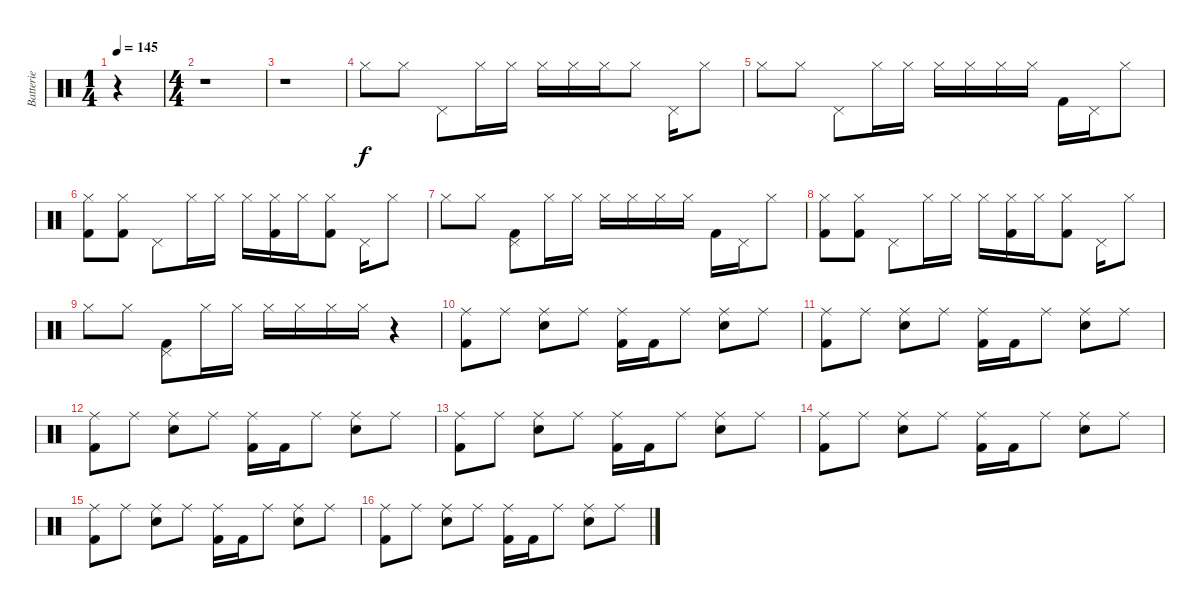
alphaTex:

\track ("Batterie" "Batterie") {instrument percussion}
\staff {score}
\articulation defaults
\ts (1 4)
\tempo 145
\clef neutral
\ks c
r.4{dy f} |
\ts (4 4)
r.1 |
r.1 |
"Hi-Hat (closed)".8 "Hi-Hat (closed)".8 "Pedal Hi-Hat (hit)".8 "Hi-Hat (closed)".16 "Hi-Hat (closed)".16 "Hi-Hat (closed)".16 "Hi-Hat (closed)".16 "Hi-Hat (closed)".16 "Hi-Hat (closed)".8 "Pedal Hi-Hat (hit)".16 "Hi-Hat (closed)".8 |
"Hi-Hat (closed)".8 "Hi-Hat (closed)".8 "Pedal Hi-Hat (hit)".8 "Hi-Hat (closed)".16 "Hi-Hat (closed)".16 "Hi-Hat (closed)".16 "Hi-Hat (closed)".16 "Hi-Hat (closed)".16 "Hi-Hat (closed)".16 "Kick (hit) 2".16 "Pedal Hi-Hat (hit)".16 "Hi-Hat (closed)".8 |
("Kick (hit) 2" "Hi-Hat (closed)").8 ("Kick (hit) 2" "Hi-Hat (closed)").8 "Pedal Hi-Hat (hit)".8 "Hi-Hat (closed)".16 "Hi-Hat (closed)".16 "Hi-Hat (closed)".16 ("Kick (hit) 2" "Hi-Hat (closed)").16 "Hi-Hat (closed)".16 ("Kick (hit) 2" "Hi-Hat (closed)").8 "Pedal Hi-Hat (hit)".16 "Hi-Hat (closed)".8 |
"Hi-Hat (closed)".8 "Hi-Hat (closed)".8 ("Kick (hit) 2" "Pedal Hi-Hat (hit)").8 "Hi-Hat (closed)".16 "Hi-Hat (closed)".16 "Hi-Hat (closed)".16 "Hi-Hat (closed)".16 "Hi-Hat (closed)".16 "Hi-Hat (closed)".16 "Kick (hit) 2".16 "Pedal Hi-Hat (hit)".16 "Hi-Hat (closed)".8 |
("Kick (hit) 2" "Hi-Hat (closed)").8 ("Kick (hit) 2" "Hi-Hat (closed)").8 "Pedal Hi-Hat (hit)".8 "Hi-Hat (closed)".16 "Hi-Hat (closed)".16 "Hi-Hat (closed)".16 ("Kick (hit) 2" "Hi-Hat (closed)").16 "Hi-Hat (closed)".16 ("Kick (hit) 2" "Hi-Hat (closed)").8 "Pedal Hi-Hat (hit)".16 "Hi-Hat (closed)".8 |
"Hi-Hat (closed)".8 "Hi-Hat (closed)".8 ("Kick (hit) 2" "Pedal Hi-Hat (hit)").8 "Hi-Hat (closed)".16 "Hi-Hat (closed)".16 "Hi-Hat (closed)".16 "Hi-Hat (closed)".16 "Hi-Hat (closed)".16 "Hi-Hat (closed)".16 r.4 |
\section ("" "")
("Ride (middle)" "Kick (hit) 2").8 "Ride (middle)".8 ("Ride (middle)" "Snare (hit) 2").8 "Ride (middle)".8 ("Ride (middle)" "Kick (hit) 2").16 "Kick (hit) 2".16 "Ride (middle)".8 ("Ride (middle)" "Snare (hit) 2").8 "Ride (middle)".8 |
("Ride (middle)" "Kick (hit) 2").8 "Ride (middle)".8 ("Ride (middle)" "Snare (hit) 2").8 "Ride (middle)".8 ("Ride (middle)" "Kick (hit) 2").16 "Kick (hit) 2".16 "Ride (middle)".8 ("Ride (middle)" "Snare (hit) 2").8 "Ride (middle)".8 |
("Ride (middle)" "Kick (hit) 2").8 "Ride (middle)".8 ("Ride (middle)" "Snare (hit) 2").8 "Ride (middle)".8 ("Ride (middle)" "Kick (hit) 2").16 "Kick (hit) 2".16 "Ride (middle)".8 ("Ride (middle)" "Snare (hit) 2").8 "Ride (middle)".8 |
("Ride (middle)" "Kick (hit) 2").8 "Ride (middle)".8 ("Ride (middle)" "Snare (hit) 2").8 "Ride (middle)".8 ("Ride (middle)" "Kick (hit) 2").16 "Kick (hit) 2".16 "Ride (middle)".8 ("Ride (middle)" "Snare (hit) 2").8 "Ride (middle)".8 |
("Ride (middle)" "Kick (hit) 2").8 "Ride (middle)".8 ("Ride (middle)" "Snare (hit) 2").8 "Ride (middle)".8 ("Ride (middle)" "Kick (hit) 2").16 "Kick (hit) 2".16 "Ride (middle)".8 ("Ride (middle)" "Snare (hit) 2").8 "Ride (middle)".8 |
("Ride (middle)" "Kick (hit) 2").8 "Ride (middle)".8 ("Ride (middle)" "Snare (hit) 2").8 "Ride (middle)".8 ("Ride (middle)" "Kick (hit) 2").16 "Kick (hit) 2".16 "Ride (middle)".8 ("Ride (middle)" "Snare (hit) 2").8 "Ride (middle)".8 |
("Ride (middle)" "Kick (hit) 2").8 "Ride (middle)".8 ("Ride (middle)" "Snare (hit) 2").8 "Ride (middle)".8 ("Ride (middle)" "Kick (hit) 2").16 "Kick (hit) 2".16 "Ride (middle)".8 ("Ride (middle)" "Snare (hit) 2").8 "Ride (middle)".8
